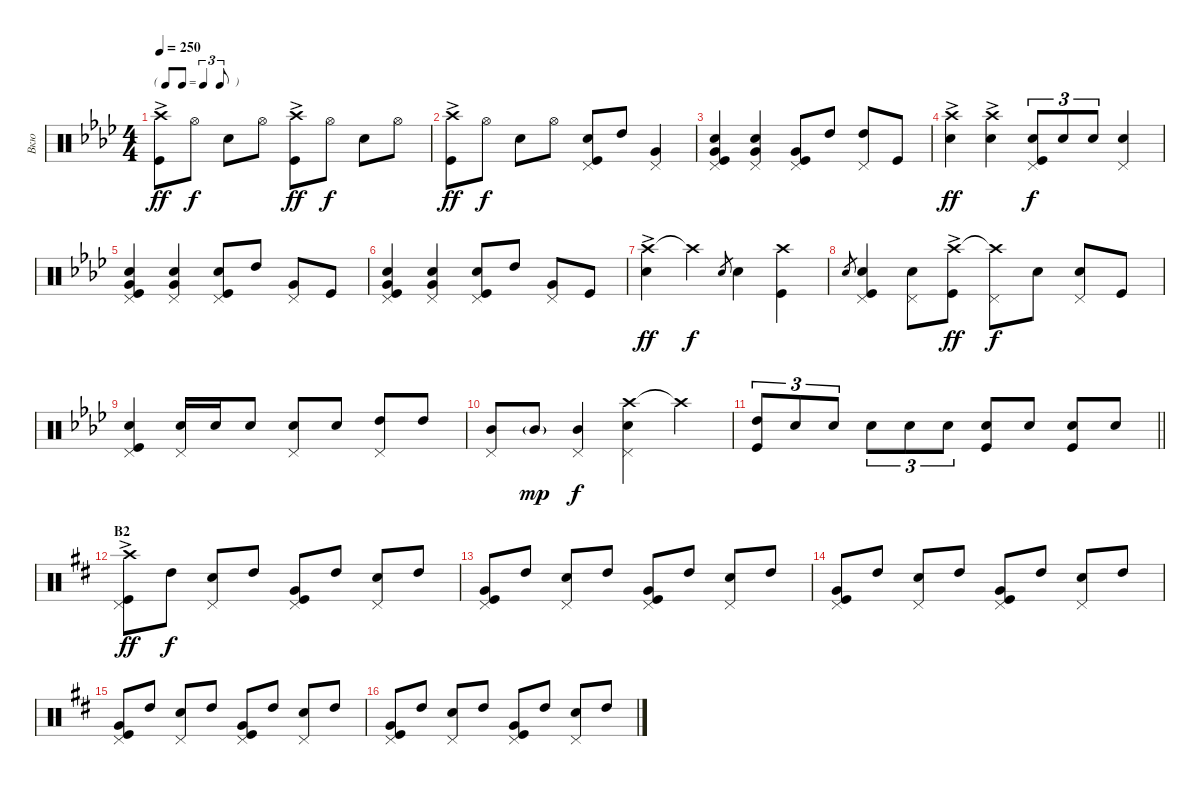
\track ("Вкю" "Вкю") {instrument percussion}
\staff {score}
\articulation defaults
\ts (4 4)
\tf triplet8th
\tempo 250
\clef neutral
\ks ab
("Crash high (hit)"{ac} "Kick (hit)"{ac}).8{dy ff} "Hi-Hat (open)".8{dy f} "Snare (hit) 2".8 "Hi-Hat (open)".8 ("Crash high (hit)"{ac} "Kick (hit)"{ac}).8{dy ff} "Hi-Hat (open)".8{dy f} "Snare (hit) 2".8 "Hi-Hat (open)".8 |
("Crash high (hit)"{ac} "Kick (hit)"{ac}).8{dy ff} "Hi-Hat (open)".8{dy f} "Snare (hit) 2".8 "Hi-Hat (open)".8 ("Snare (hit) 2" "Kick (hit)" "Pedal Hi-Hat (hit)").8 "High Tom (hit)".8 ("Very Low Tom (hit)" "Pedal Hi-Hat (hit)").4 |
("Very Low Tom (hit)" "Snare (hit) 2" "Kick (hit)" "Pedal Hi-Hat (hit)").4 ("Very Low Tom (hit)" "Snare (hit) 2" "Pedal Hi-Hat (hit)").4 ("Very Low Tom (hit)" "Kick (hit)" "Pedal Hi-Hat (hit)").8 "High Tom (hit)".8 ("High Tom (hit)" "Pedal Hi-Hat (hit)").8 "Kick (hit)".8 |
("Crash high (hit)"{ac} "Snare (hit) 2"{ac}).4{dy ff} ("Crash high (hit)"{ac} "Snare (hit) 2"{ac}).4 ("Snare (hit) 2" "Kick (hit)" "Pedal Hi-Hat (hit)").8{tu (3 2) dy f} "Snare (hit) 2".8{tu (3 2)} "Snare (hit) 2".8{tu (3 2)} ("Snare (hit) 2" "Pedal Hi-Hat (hit)").4 |
("Very Low Tom (hit)" "Snare (hit) 2" "Kick (hit)" "Pedal Hi-Hat (hit)").4 ("Very Low Tom (hit)" "Snare (hit) 2" "Pedal Hi-Hat (hit)").4 ("Snare (hit) 2" "Kick (hit)" "Pedal Hi-Hat (hit)").8 "High Tom (hit)".8 ("Very Low Tom (hit)" "Pedal Hi-Hat (hit)").8 "Kick (hit)".8 |
("Very Low Tom (hit)" "Snare (hit) 2" "Kick (hit)" "Pedal Hi-Hat (hit)").4 ("Very Low Tom (hit)" "Snare (hit) 2" "Pedal Hi-Hat (hit)").4 ("Snare (hit) 2" "Kick (hit)" "Pedal Hi-Hat (hit)").8 "High Tom (hit)".8 ("Very Low Tom (hit)" "Pedal Hi-Hat (hit)").8 "Kick (hit)".8 |
("Crash high (hit)"{ac} "Snare (hit) 2"{ac}).4{dy ff} "Crash high (hit)"{t}.4{dy f} "Snare (hit) 2".8{gr} "Snare (hit) 2".4 ("Crash high (hit)" "Kick (hit)").4 |
"Snare (hit) 2".8{gr} ("Snare (hit) 2" "Kick (hit)" "Pedal Hi-Hat (hit)").4 ("Snare (hit) 2" "Pedal Hi-Hat (hit)").8 ("Crash high (hit)"{ac} "Kick (hit)"{ac}).8{dy ff} ("Crash high (hit)"{t} "Pedal Hi-Hat (hit)").8{dy f} "Snare (hit) 2".8 ("Snare (hit) 2" "Pedal Hi-Hat (hit)").8 "Kick (hit)".8 |
("Snare (hit) 2" "Kick (hit)" "Pedal Hi-Hat (hit)").4 ("Snare (hit) 2" "Pedal Hi-Hat (hit)").16 "Snare (hit) 2".16 "Snare (hit) 2".8 ("Snare (hit) 2" "Pedal Hi-Hat (hit)").8 "Snare (hit) 2".8 ("High Tom (hit)" "Pedal Hi-Hat (hit)").8 "High Tom (hit)".8 |
("Mid Tom (hit)" "Pedal Hi-Hat (hit)").8 "Mid Tom (hit)"{g}.8{dy mp} ("Mid Tom (hit)" "Pedal Hi-Hat (hit)").4{dy f} ("Crash high (hit)" "Snare (hit) 2" "Pedal Hi-Hat (hit)").4 "Crash high (hit)"{t}.4 |
\barLineRight lightlight
("High Tom (hit)" "Kick (hit)").8{tu (3 2)} "Snare (hit) 2".8{tu (3 2)} "Snare (hit) 2".8{tu (3 2)} "Snare (hit) 2".8{tu (3 2)} "Snare (hit) 2".8{tu (3 2)} "Snare (hit) 2".8{tu (3 2)} ("Snare (hit) 2" "Kick (hit)").8 "Snare (hit) 2".8 ("Snare (hit) 2" "Kick (hit)").8 "Snare (hit) 2".8 |
\section ("" "B2")
\ks d
("Crash high (hit)"{ac} "Kick (hit)"{ac} "Pedal Hi-Hat (hit)"{ac}).8{dy ff} "High Tom (hit)".8{dy f} ("Snare (hit) 2" "Pedal Hi-Hat (hit)").8 "High Tom (hit)".8 ("Very Low Tom (hit)" "Kick (hit)" "Pedal Hi-Hat (hit)").8 "High Tom (hit)".8 ("Snare (hit) 2" "Pedal Hi-Hat (hit)").8 "High Tom (hit)".8 |
("Very Low Tom (hit)" "Kick (hit)" "Pedal Hi-Hat (hit)").8 "High Tom (hit)".8 ("Snare (hit) 2" "Pedal Hi-Hat (hit)").8 "High Tom (hit)".8 ("Very Low Tom (hit)" "Kick (hit)" "Pedal Hi-Hat (hit)").8 "High Tom (hit)".8 ("Snare (hit) 2" "Pedal Hi-Hat (hit)").8 "High Tom (hit)".8 |
("Very Low Tom (hit)" "Kick (hit)" "Pedal Hi-Hat (hit)").8 "High Tom (hit)".8 ("Snare (hit) 2" "Pedal Hi-Hat (hit)").8 "High Tom (hit)".8 ("Very Low Tom (hit)" "Kick (hit)" "Pedal Hi-Hat (hit)").8 "High Tom (hit)".8 ("Snare (hit) 2" "Pedal Hi-Hat (hit)").8 "High Tom (hit)".8 |
("Very Low Tom (hit)" "Kick (hit)" "Pedal Hi-Hat (hit)").8 "High Tom (hit)".8 ("Snare (hit) 2" "Pedal Hi-Hat (hit)").8 "High Tom (hit)".8 ("Very Low Tom (hit)" "Kick (hit)" "Pedal Hi-Hat (hit)").8 "High Tom (hit)".8 ("Snare (hit) 2" "Pedal Hi-Hat (hit)").8 "High Tom (hit)".8 |
("Very Low Tom (hit)" "Kick (hit)" "Pedal Hi-Hat (hit)").8 "High Tom (hit)".8 ("Snare (hit) 2" "Pedal Hi-Hat (hit)").8 "High Tom (hit)".8 ("Very Low Tom (hit)" "Kick (hit)" "Pedal Hi-Hat (hit)").8 "High Tom (hit)".8 ("Snare (hit) 2" "Pedal Hi-Hat (hit)").8 "High Tom (hit)".8
